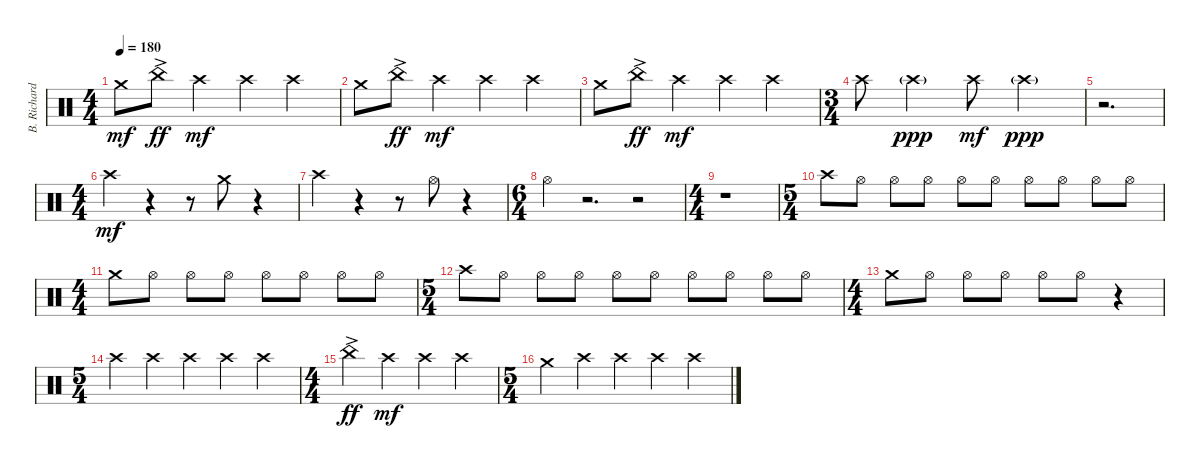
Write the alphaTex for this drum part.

\track ("B. Richardson Drums" "B. Richard") {instrument percussion}
\staff {score}
\articulation defaults
\ts (4 4)
\tempo 180
\clef neutral
\ks c "Crash medium (hit)".8{dy mf} "China (hit)"{ac}.8{dy ff} "Crash high (hit)".4{dy mf} "Crash high (hit)".4 "Crash high (hit)".4
|
"Crash medium (hit)".8 "China (hit)"{ac}.8{dy ff} "Crash high (hit)".4{dy mf} "Crash high (hit)".4 "Crash high (hit)".4 |
"Crash medium (hit)".8 "China (hit)"{ac}.8{dy ff} "Crash high (hit)".4{dy mf} "Crash high (hit)".4 "Crash high (hit)".4 |
\ts (3 4)
"Crash high (hit)".8 "Crash high (hit)"{g}.4{dy ppp} "Crash high (hit)".8{dy mf} "Crash high (hit)"{g}.4{dy ppp} |
r.2{d} |
\ts (4 4)
"Crash high (hit)".4{dy mf} r.4 r.8 "Crash medium (hit)".8 r.4 |
"Crash high (hit)".4 r.4 r.8 "Hi-Hat (open)".8 r.4 |
\ts (6 4)
"Hi-Hat (open)".4 r.2{d} r.2 |
\ts (4 4)
r.1 |
\ts (5 4)
"Crash high (hit)".8 "Hi-Hat (open)".8 "Hi-Hat (open)".8 "Hi-Hat (open)".8 "Hi-Hat (open)".8 "Hi-Hat (open)".8 "Hi-Hat (open)".8 "Hi-Hat (open)".8 "Hi-Hat (open)".8 "Hi-Hat (open)".8 |
\ts (4 4)
"Crash medium (hit)".8 "Hi-Hat (open)".8 "Hi-Hat (open)".8 "Hi-Hat (open)".8 "Hi-Hat (open)".8 "Hi-Hat (open)".8 "Hi-Hat (open)".8 "Hi-Hat (open)".8 |
\ts (5 4)
"Crash high (hit)".8 "Hi-Hat (open)".8 "Hi-Hat (open)".8 "Hi-Hat (open)".8 "Hi-Hat (open)".8 "Hi-Hat (open)".8 "Hi-Hat (open)".8 "Hi-Hat (open)".8 "Hi-Hat (open)".8 "Hi-Hat (open)".8 |
\ts (4 4)
"Crash medium (hit)".8 "Hi-Hat (open)".8 "Hi-Hat (open)".8 "Hi-Hat (open)".8 "Hi-Hat (open)".8 "Hi-Hat (open)".8 r.4 |
\ts (5 4)
"Crash high (hit)".4 "Crash high (hit)".4 "Crash high (hit)".4 "Crash high (hit)".4 "Crash high (hit)".4 |
\ts (4 4)
"China (hit)"{ac}.4{dy ff} "Crash high (hit)".4{dy mf} "Crash high (hit)".4 "Crash high (hit)".4 |
\ts (5 4)
"Crash medium (hit)".4 "Crash high (hit)".4 "Crash high (hit)".4 "Crash high (hit)".4 "Crash high (hit)".4
